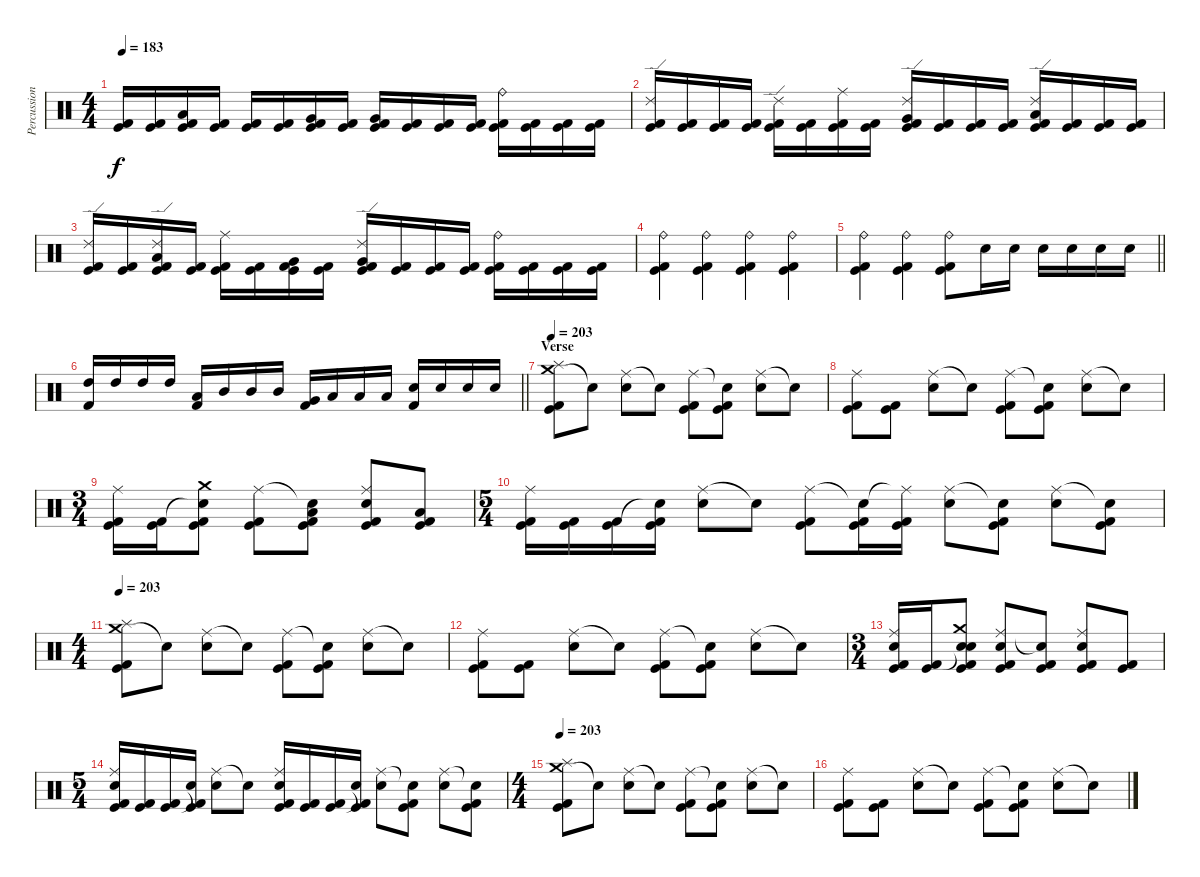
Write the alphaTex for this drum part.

\track ("Percussion" "Percussion") {instrument percussion}
\staff {score}
\articulation defaults
\ts (4 4)
\tempo 183
\clef neutral
\ks c
("Kick (hit)" "Kick (hit) 2").16{dy f} ("Kick (hit)" "Kick (hit) 2").16 ("Low Floor Tom (hit)" "Kick (hit)" "Kick (hit) 2").16 ("Kick (hit)" "Kick (hit) 2").16 ("Kick (hit)" "Kick (hit) 2").16 ("Kick (hit)" "Kick (hit) 2").16 ("Very Low Tom (hit)" "Kick (hit)" "Kick (hit) 2").16 ("Kick (hit)" "Kick (hit) 2").16 ("Very Low Tom (hit)" "Kick (hit)" "Kick (hit) 2").16 ("Kick (hit)" "Kick (hit) 2").16 ("Kick (hit)" "Kick (hit) 2").16 ("Kick (hit)" "Kick (hit) 2").16 ("Ride (bell)" "Kick (hit)" "Kick (hit) 2").16 ("Kick (hit)" "Kick (hit) 2").16 ("Kick (hit)" "Kick (hit) 2").16 ("Kick (hit)" "Kick (hit) 2").16 |
("Ride (edge) 2" "Kick (hit)" "Kick (hit) 2").16 ("Kick (hit)" "Kick (hit) 2").16 ("Kick (hit)" "Kick (hit) 2").16 ("Kick (hit)" "Kick (hit) 2").16 ("Ride (edge) 2" "Kick (hit)" "Kick (hit) 2").16 ("Kick (hit)" "Kick (hit) 2").16 ("Ride (middle)" "Kick (hit)" "Kick (hit) 2").16 ("Kick (hit)" "Kick (hit) 2").16 ("Ride (edge) 2" "Very Low Tom (hit)" "Kick (hit)" "Kick (hit) 2").16 ("Kick (hit)" "Kick (hit) 2").16 ("Kick (hit)" "Kick (hit) 2").16 ("Kick (hit)" "Kick (hit) 2").16 ("Ride (edge) 2" "Low Floor Tom (hit)" "Kick (hit)" "Kick (hit) 2").16 ("Kick (hit)" "Kick (hit) 2").16 ("Kick (hit)" "Kick (hit) 2").16 ("Kick (hit)" "Kick (hit) 2").16 |
("Ride (edge) 2" "Kick (hit)" "Kick (hit) 2").16 ("Kick (hit)" "Kick (hit) 2").16 ("Ride (edge) 2" "Low Floor Tom (hit)" "Kick (hit)" "Kick (hit) 2").16 ("Kick (hit)" "Kick (hit) 2").16 ("Ride (middle)" "Kick (hit)" "Kick (hit) 2").16 ("Kick (hit)" "Kick (hit) 2").16 ("Very Low Tom (hit)" "Kick (hit)" "Kick (hit) 2").16 ("Kick (hit)" "Kick (hit) 2").16 ("Ride (edge) 2" "Very Low Tom (hit)" "Kick (hit)" "Kick (hit) 2").16 ("Kick (hit)" "Kick (hit) 2").16 ("Kick (hit)" "Kick (hit) 2").16 ("Kick (hit)" "Kick (hit) 2").16 ("Ride (bell)" "Kick (hit)" "Kick (hit) 2").16 ("Kick (hit)" "Kick (hit) 2").16 ("Kick (hit)" "Kick (hit) 2").16 ("Kick (hit)" "Kick (hit) 2").16 |
("Ride (bell)" "Kick (hit)" "Kick (hit) 2").4 ("Ride (bell)" "Kick (hit)" "Kick (hit) 2").4 ("Ride (bell)" "Kick (hit)" "Kick (hit) 2").4 ("Ride (bell)" "Kick (hit)" "Kick (hit) 2").4 |
\barLineRight lightlight
("Ride (bell)" "Kick (hit)" "Kick (hit) 2").4 ("Ride (bell)" "Kick (hit)" "Kick (hit) 2").4 ("Ride (bell)" "Kick (hit)" "Kick (hit) 2").8 "Electric Snare (hit)".16 "Electric Snare (hit)".16 "Electric Snare (hit)".16 "Electric Snare (hit)".16 "Electric Snare (hit)".16 "Electric Snare (hit)".16 |
\barLineRight lightlight
("High Tom (hit)" "Kick (hit) 2").16 "High Tom (hit)".16 "High Tom (hit)".16 "High Tom (hit)".16 ("Low Tom (hit)" "Kick (hit) 2").16 "Mid Tom (hit)".16 "Mid Tom (hit)".16 "Mid Tom (hit)".16 ("Very Low Tom (hit)" "Kick (hit) 2").16 "Low Tom (hit)".16 "Low Tom (hit)".16 "Low Tom (hit)".16 ("Electric Snare (hit)" "Kick (hit) 2").16 "Electric Snare (hit)".16 "Electric Snare (hit)".16 "Electric Snare (hit)".16 |
\section ("" "Verse")
\tempo 203
("Crash medium (hit)" "Splash (hit)" "Kick (hit)" "Kick (hit) 2").8 "Snare (hit)"{t}.8 ("Ride (middle)" "Electric Snare (hit)").8 "Snare (hit)"{t}.8 ("Ride (middle)" "Kick (hit)" "Kick (hit) 2").8 ("Snare (hit)"{t} "Kick (hit)" "Kick (hit) 2").8 ("Ride (middle)" "Electric Snare (hit)").8 "Snare (hit)"{t}.8 |
("Ride (middle)" "Kick (hit)" "Kick (hit) 2").8 ("Kick (hit)" "Kick (hit) 2").8 ("Ride (middle)" "Electric Snare (hit)").8 "Snare (hit)"{t}.8 ("Ride (middle)" "Kick (hit)" "Kick (hit) 2").8 ("Snare (hit)"{t} "Kick (hit)" "Kick (hit) 2").8 ("Ride (middle)" "Electric Snare (hit)").8 "Snare (hit)"{t}.8 |
\ts (3 4)
("Ride (middle)" "Kick (hit)" "Kick (hit) 2").16 ("Kick (hit)" "Kick (hit) 2").16 ("Crash medium (hit)" "Snare (hit)"{t} "Kick (hit)" "Kick (hit) 2").8 ("Ride (middle)" "Kick (hit)" "Kick (hit) 2").8 ("Snare (hit)"{t} "Low Floor Tom (hit)" "Kick (hit)" "Kick (hit) 2").8 ("Ride (middle)" "Electric Snare (hit)" "Kick (hit)" "Kick (hit) 2").8 ("Low Floor Tom (hit)" "Kick (hit)" "Kick (hit) 2").8 |
\ts (5 4)
("Ride (middle)" "Kick (hit)" "Kick (hit) 2").16 ("Kick (hit)" "Kick (hit) 2").16 ("Kick (hit)" "Kick (hit) 2").16 ("Snare (hit)"{t} "Kick (hit)" "Kick (hit) 2").16 ("Ride (middle)" "Electric Snare (hit)").8 "Snare (hit)"{t}.8 ("Ride (middle)" "Kick (hit)" "Kick (hit) 2").8 ("Snare (hit)"{t} "Kick (hit)" "Kick (hit) 2").16 ("Ride (middle)"{t} "Kick (hit)" "Kick (hit) 2").16 ("Ride (middle)" "Electric Snare (hit)").8 ("Snare (hit)"{t} "Kick (hit)" "Kick (hit) 2").8 ("Ride (middle)" "Electric Snare (hit)").8 ("Snare (hit)"{t} "Kick (hit)" "Kick (hit) 2").8 |
\ts (4 4)
\tempo 203
("Crash medium (hit)" "Splash (hit)" "Kick (hit)" "Kick (hit) 2").8 "Snare (hit)"{t}.8 ("Ride (middle)" "Electric Snare (hit)").8 "Snare (hit)"{t}.8 ("Ride (middle)" "Kick (hit)" "Kick (hit) 2").8 ("Snare (hit)"{t} "Kick (hit)" "Kick (hit) 2").8 ("Ride (middle)" "Electric Snare (hit)").8 "Snare (hit)"{t}.8 |
("Ride (middle)" "Kick (hit)" "Kick (hit) 2").8 ("Kick (hit)" "Kick (hit) 2").8 ("Ride (middle)" "Electric Snare (hit)").8 "Snare (hit)"{t}.8 ("Ride (middle)" "Kick (hit)" "Kick (hit) 2").8 ("Snare (hit)"{t} "Kick (hit)" "Kick (hit) 2").8 ("Ride (middle)" "Electric Snare (hit)").8 "Snare (hit)"{t}.8 |
\ts (3 4)
("Ride (middle)" "Electric Snare (hit)" "Kick (hit)" "Kick (hit) 2").16 ("Kick (hit)" "Kick (hit) 2").16 ("Crash medium (hit)" "Snare (hit)"{t} "Electric Snare (hit)" "Kick (hit)" "Kick (hit) 2").8 ("Ride (middle)" "Electric Snare (hit)" "Kick (hit)" "Kick (hit) 2").8 ("Snare (hit)"{t} "Kick (hit)" "Kick (hit) 2").8 ("Ride (middle)" "Electric Snare (hit)" "Kick (hit)" "Kick (hit) 2").8 ("Kick (hit)" "Kick (hit) 2").8 |
\ts (5 4)
("Ride (middle)" "Electric Snare (hit)" "Kick (hit)" "Kick (hit) 2").16 ("Kick (hit)" "Kick (hit) 2").16 ("Kick (hit)" "Kick (hit) 2").16 ("Snare (hit)"{t} "Kick (hit)" "Kick (hit) 2").16 ("Ride (middle)" "Electric Snare (hit)").8 "Snare (hit)"{t}.8 ("Ride (middle)" "Electric Snare (hit)" "Kick (hit)" "Kick (hit) 2").16 ("Kick (hit)" "Kick (hit) 2").16 ("Kick (hit)" "Kick (hit) 2").16 ("Snare (hit)"{t} "Kick (hit)" "Kick (hit) 2").16 ("Ride (middle)" "Electric Snare (hit)").8 ("Snare (hit)"{t} "Kick (hit)" "Kick (hit) 2").8 ("Ride (middle)" "Electric Snare (hit)").8 ("Snare (hit)"{t} "Kick (hit)" "Kick (hit) 2").8 |
\ts (4 4)
\tempo 203
("Crash medium (hit)" "Splash (hit)" "Kick (hit)" "Kick (hit) 2").8 "Snare (hit)"{t}.8 ("Ride (middle)" "Electric Snare (hit)").8 "Snare (hit)"{t}.8 ("Ride (middle)" "Kick (hit)" "Kick (hit) 2").8 ("Snare (hit)"{t} "Kick (hit)" "Kick (hit) 2").8 ("Ride (middle)" "Electric Snare (hit)").8 "Snare (hit)"{t}.8 |
("Ride (middle)" "Kick (hit)" "Kick (hit) 2").8 ("Kick (hit)" "Kick (hit) 2").8 ("Ride (middle)" "Electric Snare (hit)").8 "Snare (hit)"{t}.8 ("Ride (middle)" "Kick (hit)" "Kick (hit) 2").8 ("Snare (hit)"{t} "Kick (hit)" "Kick (hit) 2").8 ("Ride (middle)" "Electric Snare (hit)").8 "Snare (hit)"{t}.8
